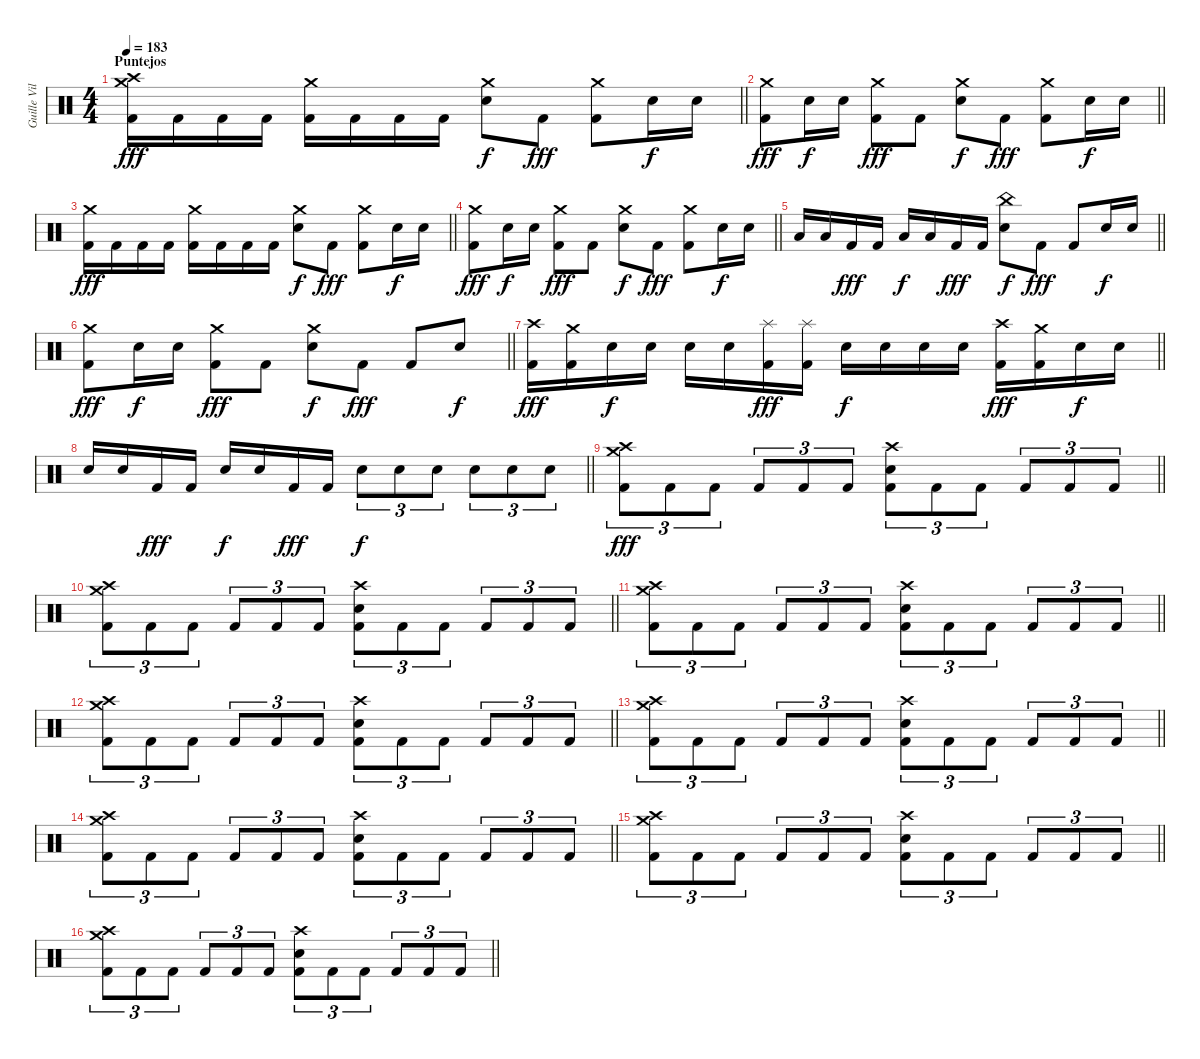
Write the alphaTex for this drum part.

\track ("Guille Vila" "Guille Vil") {instrument percussion}
\staff {score}
\articulation defaults
\ts (4 4)
\section ("" "Puntejos")
\tempo 183
\clef neutral
\barLineRight lightlight
\ks c
("Crash high (hit)" "Crash medium (hit)" "Kick (hit) 2").16{dy fff} "Kick (hit) 2".16 "Kick (hit) 2".16 "Kick (hit) 2".16 ("Crash medium (hit)" "Kick (hit) 2").16 "Kick (hit) 2".16 "Kick (hit) 2".16 "Kick (hit) 2".16 ("Crash medium (hit)" "Snare (hit) 2").8{dy f} "Kick (hit) 2".8{dy fff} ("Crash medium (hit)" "Kick (hit) 2").8 "Snare (hit) 2".16{dy f} "Snare (hit) 2".16 |
\barLineRight lightlight
("Crash medium (hit)" "Kick (hit) 2").8{dy fff} "Snare (hit) 2".16{dy f} "Snare (hit) 2".16 ("Crash medium (hit)" "Kick (hit) 2").8{dy fff} "Kick (hit) 2".8 ("Crash medium (hit)" "Snare (hit) 2").8{dy f} "Kick (hit) 2".8{dy fff} ("Crash medium (hit)" "Kick (hit) 2").8 "Snare (hit) 2".16{dy f} "Snare (hit) 2".16 |
\barLineRight lightlight
("Crash medium (hit)" "Kick (hit) 2").16{dy fff} "Kick (hit) 2".16 "Kick (hit) 2".16 "Kick (hit) 2".16 ("Crash medium (hit)" "Kick (hit) 2").16 "Kick (hit) 2".16 "Kick (hit) 2".16 "Kick (hit) 2".16 ("Crash medium (hit)" "Snare (hit) 2").8{dy f} "Kick (hit) 2".8{dy fff} ("Crash medium (hit)" "Kick (hit) 2").8 "Snare (hit) 2".16{dy f} "Snare (hit) 2".16 |
\barLineRight lightlight
("Crash medium (hit)" "Kick (hit) 2").8{dy fff} "Snare (hit) 2".16{dy f} "Snare (hit) 2".16 ("Crash medium (hit)" "Kick (hit) 2").8{dy fff} "Kick (hit) 2".8 ("Crash medium (hit)" "Snare (hit) 2").8{dy f} "Kick (hit) 2".8{dy fff} ("Crash medium (hit)" "Kick (hit) 2").8 "Snare (hit) 2".16{dy f} "Snare (hit) 2".16 |
\barLineRight lightlight "Low Tom (hit)".16 "Low Tom (hit)".16 "Kick (hit) 2".16{dy fff} "Kick (hit) 2".16 "Low Floor Tom (hit)".16{dy f} "Low Floor Tom (hit)".16 "Kick (hit) 2".16{dy fff} "Kick (hit) 2".16
("China (hit)" "Snare (hit) 2").8{dy f} "Kick (hit) 2".8{dy fff} "Kick (hit) 2".8 "Snare (hit) 2".16{dy f} "Snare (hit) 2".16 |
\barLineRight lightlight
("Crash medium (hit)" "Kick (hit) 2").8{dy fff} "Snare (hit) 2".16{dy f} "Snare (hit) 2".16 ("Crash medium (hit)" "Kick (hit) 2").8{dy fff} "Kick (hit) 2".8 ("Crash medium (hit)" "Snare (hit) 2").8{dy f} "Kick (hit) 2".8{dy fff} "Kick (hit) 2".8 "Snare (hit) 2".8{dy f} |
\barLineRight lightlight
("Crash high (hit)" "Kick (hit) 2").16{dy fff} ("Crash medium (hit)" "Kick (hit) 2").16 "Snare (hit) 2".16{dy f} "Snare (hit) 2".16 "Snare (hit) 2".16 "Snare (hit) 2".16 ("Splash (hit)" "Kick (hit) 2").16{dy fff} ("Splash (hit)" "Kick (hit) 2").16 "Snare (hit) 2".16{dy f} "Snare (hit) 2".16 "Snare (hit) 2".16 "Snare (hit) 2".16 ("Crash high (hit)" "Kick (hit) 2").16{dy fff} ("Crash medium (hit)" "Kick (hit) 2").16 "Snare (hit) 2".16{dy f} "Snare (hit) 2".16 |
\barLineRight lightlight "Snare (hit) 2".16 "Snare (hit) 2".16 "Kick (hit) 2".16{dy fff} "Kick (hit) 2".16 "Snare (hit) 2".16{dy f} "Snare (hit) 2".16 "Kick (hit) 2".16{dy fff} "Kick (hit) 2".16 "Snare (hit) 2".8{tu (3 2) dy f} "Snare (hit) 2".8{tu (3 2)} "Snare (hit) 2".8{tu (3 2)} "Snare (hit) 2".8{tu (3 2)} "Snare (hit) 2".8{tu (3 2)} "Snare (hit) 2".8{tu (3 2)}
|
\barLineRight lightlight
("Crash medium (hit)" "Crash high (hit)" "Kick (hit) 2").8{tu (3 2) dy fff} "Kick (hit) 2".8{tu (3 2)} "Kick (hit) 2".8{tu (3 2)} "Kick (hit) 2".8{tu (3 2)} "Kick (hit) 2".8{tu (3 2)} "Kick (hit) 2".8{tu (3 2)} ("Crash high (hit)" "Snare (hit) 2" "Kick (hit) 2").8{tu (3 2)} "Kick (hit) 2".8{tu (3 2)} "Kick (hit) 2".8{tu (3 2)} "Kick (hit) 2".8{tu (3 2)} "Kick (hit) 2".8{tu (3 2)} "Kick (hit) 2".8{tu (3 2)} |
\barLineRight lightlight
("Crash medium (hit)" "Crash high (hit)" "Kick (hit) 2").8{tu (3 2)} "Kick (hit) 2".8{tu (3 2)} "Kick (hit) 2".8{tu (3 2)} "Kick (hit) 2".8{tu (3 2)} "Kick (hit) 2".8{tu (3 2)} "Kick (hit) 2".8{tu (3 2)} ("Crash high (hit)" "Snare (hit) 2" "Kick (hit) 2").8{tu (3 2)} "Kick (hit) 2".8{tu (3 2)} "Kick (hit) 2".8{tu (3 2)} "Kick (hit) 2".8{tu (3 2)} "Kick (hit) 2".8{tu (3 2)} "Kick (hit) 2".8{tu (3 2)} |
\barLineRight lightlight
("Crash medium (hit)" "Crash high (hit)" "Kick (hit) 2").8{tu (3 2)} "Kick (hit) 2".8{tu (3 2)} "Kick (hit) 2".8{tu (3 2)} "Kick (hit) 2".8{tu (3 2)} "Kick (hit) 2".8{tu (3 2)} "Kick (hit) 2".8{tu (3 2)} ("Crash high (hit)" "Snare (hit) 2" "Kick (hit) 2").8{tu (3 2)} "Kick (hit) 2".8{tu (3 2)} "Kick (hit) 2".8{tu (3 2)} "Kick (hit) 2".8{tu (3 2)} "Kick (hit) 2".8{tu (3 2)} "Kick (hit) 2".8{tu (3 2)} |
\barLineRight lightlight
("Crash medium (hit)" "Crash high (hit)" "Kick (hit) 2").8{tu (3 2)} "Kick (hit) 2".8{tu (3 2)} "Kick (hit) 2".8{tu (3 2)} "Kick (hit) 2".8{tu (3 2)} "Kick (hit) 2".8{tu (3 2)} "Kick (hit) 2".8{tu (3 2)} ("Crash high (hit)" "Snare (hit) 2" "Kick (hit) 2").8{tu (3 2)} "Kick (hit) 2".8{tu (3 2)} "Kick (hit) 2".8{tu (3 2)} "Kick (hit) 2".8{tu (3 2)} "Kick (hit) 2".8{tu (3 2)} "Kick (hit) 2".8{tu (3 2)} |
\barLineRight lightlight
("Crash medium (hit)" "Crash high (hit)" "Kick (hit) 2").8{tu (3 2)} "Kick (hit) 2".8{tu (3 2)} "Kick (hit) 2".8{tu (3 2)} "Kick (hit) 2".8{tu (3 2)} "Kick (hit) 2".8{tu (3 2)} "Kick (hit) 2".8{tu (3 2)} ("Crash high (hit)" "Snare (hit) 2" "Kick (hit) 2").8{tu (3 2)} "Kick (hit) 2".8{tu (3 2)} "Kick (hit) 2".8{tu (3 2)} "Kick (hit) 2".8{tu (3 2)} "Kick (hit) 2".8{tu (3 2)} "Kick (hit) 2".8{tu (3 2)} |
\barLineRight lightlight
("Crash medium (hit)" "Crash high (hit)" "Kick (hit) 2").8{tu (3 2)} "Kick (hit) 2".8{tu (3 2)} "Kick (hit) 2".8{tu (3 2)} "Kick (hit) 2".8{tu (3 2)} "Kick (hit) 2".8{tu (3 2)} "Kick (hit) 2".8{tu (3 2)} ("Crash high (hit)" "Snare (hit) 2" "Kick (hit) 2").8{tu (3 2)} "Kick (hit) 2".8{tu (3 2)} "Kick (hit) 2".8{tu (3 2)} "Kick (hit) 2".8{tu (3 2)} "Kick (hit) 2".8{tu (3 2)} "Kick (hit) 2".8{tu (3 2)} |
\barLineRight lightlight
("Crash medium (hit)" "Crash high (hit)" "Kick (hit) 2").8{tu (3 2)} "Kick (hit) 2".8{tu (3 2)} "Kick (hit) 2".8{tu (3 2)} "Kick (hit) 2".8{tu (3 2)} "Kick (hit) 2".8{tu (3 2)} "Kick (hit) 2".8{tu (3 2)} ("Crash high (hit)" "Snare (hit) 2" "Kick (hit) 2").8{tu (3 2)} "Kick (hit) 2".8{tu (3 2)} "Kick (hit) 2".8{tu (3 2)} "Kick (hit) 2".8{tu (3 2)} "Kick (hit) 2".8{tu (3 2)} "Kick (hit) 2".8{tu (3 2)} |
\barLineRight lightlight
("Crash medium (hit)" "Crash high (hit)" "Kick (hit) 2").8{tu (3 2)} "Kick (hit) 2".8{tu (3 2)} "Kick (hit) 2".8{tu (3 2)} "Kick (hit) 2".8{tu (3 2)} "Kick (hit) 2".8{tu (3 2)} "Kick (hit) 2".8{tu (3 2)} ("Crash high (hit)" "Snare (hit) 2" "Kick (hit) 2").8{tu (3 2)} "Kick (hit) 2".8{tu (3 2)} "Kick (hit) 2".8{tu (3 2)} "Kick (hit) 2".8{tu (3 2)} "Kick (hit) 2".8{tu (3 2)} "Kick (hit) 2".8{tu (3 2)}
